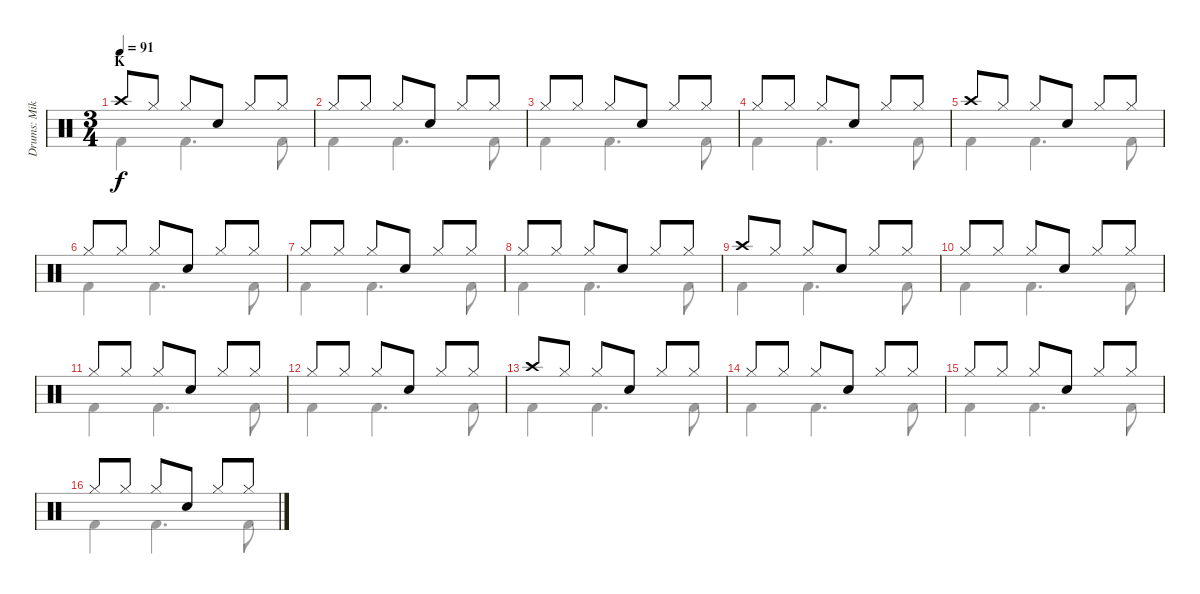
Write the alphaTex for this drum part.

\track ("Drums: Mike" "Drums: Mik") {instrument percussion}
\staff {score}
\articulation defaults
\voice
\ts (3 4)
\section ("" "K")
\tempo 91
\clef neutral
\ks c "Crash high (hit)".8{dy f} "Hi-Hat (closed)".8 "Hi-Hat (closed)".8 "Snare (hit) 2".8 "Hi-Hat (closed)".8 "Hi-Hat (closed)".8
|
"Hi-Hat (closed)".8 "Hi-Hat (closed)".8 "Hi-Hat (closed)".8 "Snare (hit) 2".8 "Hi-Hat (closed)".8 "Hi-Hat (closed)".8 |
"Hi-Hat (closed)".8 "Hi-Hat (closed)".8 "Hi-Hat (closed)".8 "Snare (hit) 2".8 "Hi-Hat (closed)".8 "Hi-Hat (closed)".8 |
"Hi-Hat (closed)".8 "Hi-Hat (closed)".8 "Hi-Hat (closed)".8 "Snare (hit) 2".8 "Hi-Hat (closed)".8 "Hi-Hat (closed)".8 |
"Crash high (hit)".8 "Hi-Hat (closed)".8 "Hi-Hat (closed)".8 "Snare (hit) 2".8 "Hi-Hat (closed)".8 "Hi-Hat (closed)".8 |
"Hi-Hat (closed)".8 "Hi-Hat (closed)".8 "Hi-Hat (closed)".8 "Snare (hit) 2".8 "Hi-Hat (closed)".8 "Hi-Hat (closed)".8 |
"Hi-Hat (closed)".8 "Hi-Hat (closed)".8 "Hi-Hat (closed)".8 "Snare (hit) 2".8 "Hi-Hat (closed)".8 "Hi-Hat (closed)".8 |
"Hi-Hat (closed)".8 "Hi-Hat (closed)".8 "Hi-Hat (closed)".8 "Snare (hit) 2".8 "Hi-Hat (closed)".8 "Hi-Hat (closed)".8 |
"Crash high (hit)".8 "Hi-Hat (closed)".8 "Hi-Hat (closed)".8 "Snare (hit) 2".8 "Hi-Hat (closed)".8 "Hi-Hat (closed)".8 |
"Hi-Hat (closed)".8 "Hi-Hat (closed)".8 "Hi-Hat (closed)".8 "Snare (hit) 2".8 "Hi-Hat (closed)".8 "Hi-Hat (closed)".8 |
"Hi-Hat (closed)".8 "Hi-Hat (closed)".8 "Hi-Hat (closed)".8 "Snare (hit) 2".8 "Hi-Hat (closed)".8 "Hi-Hat (closed)".8 |
"Hi-Hat (closed)".8 "Hi-Hat (closed)".8 "Hi-Hat (closed)".8 "Snare (hit) 2".8 "Hi-Hat (closed)".8 "Hi-Hat (closed)".8 |
"Crash high (hit)".8 "Hi-Hat (closed)".8 "Hi-Hat (closed)".8 "Snare (hit) 2".8 "Hi-Hat (closed)".8 "Hi-Hat (closed)".8 |
"Hi-Hat (closed)".8 "Hi-Hat (closed)".8 "Hi-Hat (closed)".8 "Snare (hit) 2".8 "Hi-Hat (closed)".8 "Hi-Hat (closed)".8 |
"Hi-Hat (closed)".8 "Hi-Hat (closed)".8 "Hi-Hat (closed)".8 "Snare (hit) 2".8 "Hi-Hat (closed)".8 "Hi-Hat (closed)".8 |
"Hi-Hat (closed)".8 "Hi-Hat (closed)".8 "Hi-Hat (closed)".8 "Snare (hit) 2".8 "Hi-Hat (closed)".8 "Hi-Hat (closed)".8
\voice
\clef neutral
\ottava regular
\simile none
\ks c "Kick (hit) 2".4{dy f} "Kick (hit) 2".4{d} "Kick (hit) 2".8
|
"Kick (hit) 2".4 "Kick (hit) 2".4{d} "Kick (hit) 2".8 |
"Kick (hit) 2".4 "Kick (hit) 2".4{d} "Kick (hit) 2".8 |
"Kick (hit) 2".4 "Kick (hit) 2".4{d} "Kick (hit) 2".8 |
"Kick (hit) 2".4 "Kick (hit) 2".4{d} "Kick (hit) 2".8 |
"Kick (hit) 2".4 "Kick (hit) 2".4{d} "Kick (hit) 2".8 |
"Kick (hit) 2".4 "Kick (hit) 2".4{d} "Kick (hit) 2".8 |
"Kick (hit) 2".4 "Kick (hit) 2".4{d} "Kick (hit) 2".8 |
"Kick (hit) 2".4 "Kick (hit) 2".4{d} "Kick (hit) 2".8 |
"Kick (hit) 2".4 "Kick (hit) 2".4{d} "Kick (hit) 2".8 |
"Kick (hit) 2".4 "Kick (hit) 2".4{d} "Kick (hit) 2".8 |
"Kick (hit) 2".4 "Kick (hit) 2".4{d} "Kick (hit) 2".8 |
"Kick (hit) 2".4 "Kick (hit) 2".4{d} "Kick (hit) 2".8 |
"Kick (hit) 2".4 "Kick (hit) 2".4{d} "Kick (hit) 2".8 |
"Kick (hit) 2".4 "Kick (hit) 2".4{d} "Kick (hit) 2".8 |
"Kick (hit) 2".4 "Kick (hit) 2".4{d} "Kick (hit) 2".8
